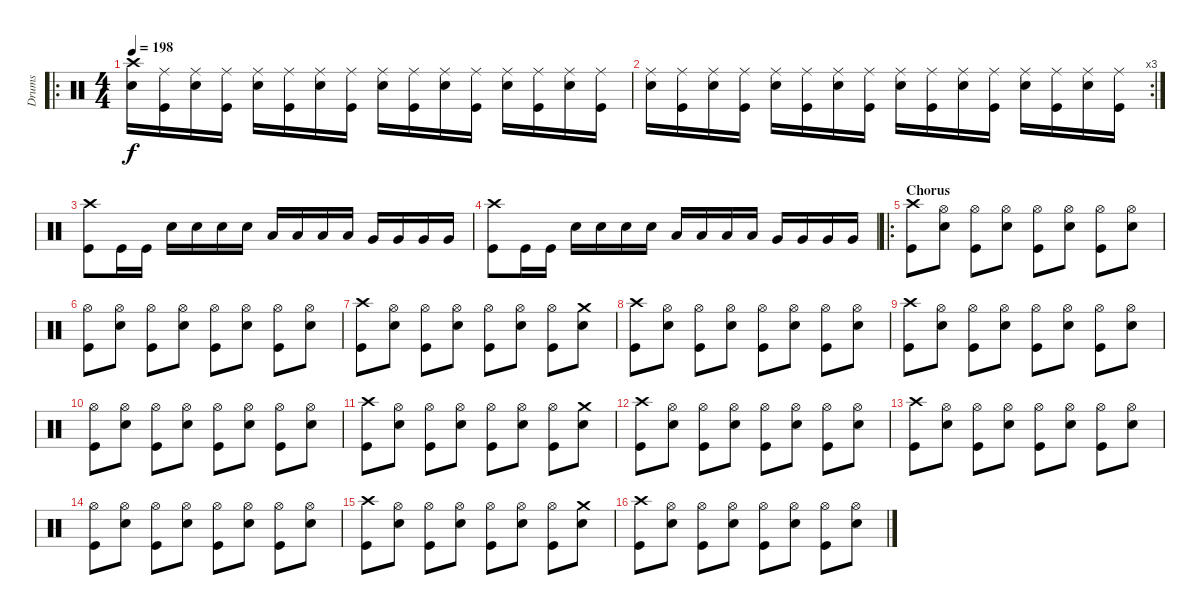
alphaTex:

\track ("Drums" "Drums") {instrument percussion}
\staff {score}
\articulation defaults
\ro
\ts (4 4)
\tempo 198
\clef neutral
\ks c
("Crash high (hit)" "Snare (hit) 2").16{dy f} ("Ride (middle)" "Kick (hit)").16 ("Ride (middle)" "Snare (hit) 2").16 ("Ride (middle)" "Kick (hit)").16 ("Ride (middle)" "Snare (hit) 2").16 ("Ride (middle)" "Kick (hit)").16 ("Ride (middle)" "Snare (hit) 2").16 ("Ride (middle)" "Kick (hit)").16 ("Ride (middle)" "Snare (hit) 2").16 ("Ride (middle)" "Kick (hit)").16 ("Ride (middle)" "Snare (hit) 2").16 ("Ride (middle)" "Kick (hit)").16 ("Ride (middle)" "Snare (hit) 2").16 ("Ride (middle)" "Kick (hit)").16 ("Ride (middle)" "Snare (hit) 2").16 ("Ride (middle)" "Kick (hit)").16 |
\rc 3
("Ride (middle)" "Snare (hit) 2").16 ("Ride (middle)" "Kick (hit)").16 ("Ride (middle)" "Snare (hit) 2").16 ("Ride (middle)" "Kick (hit)").16 ("Ride (middle)" "Snare (hit) 2").16 ("Ride (middle)" "Kick (hit)").16 ("Ride (middle)" "Snare (hit) 2").16 ("Ride (middle)" "Kick (hit)").16 ("Ride (middle)" "Snare (hit) 2").16 ("Ride (middle)" "Kick (hit)").16 ("Ride (middle)" "Snare (hit) 2").16 ("Ride (middle)" "Kick (hit)").16 ("Ride (middle)" "Snare (hit) 2").16 ("Ride (middle)" "Kick (hit)").16 ("Ride (middle)" "Snare (hit) 2").16 ("Ride (middle)" "Kick (hit)").16 |
("Crash high (hit)" "Kick (hit)").8 "Kick (hit)".16 "Kick (hit)".16 "Snare (hit) 2".16 "Snare (hit) 2".16 "Snare (hit) 2".16 "Snare (hit) 2".16 "Low Tom (hit)".16 "Low Tom (hit)".16 "Low Tom (hit)".16 "Low Tom (hit)".16 "Very Low Tom (hit)".16 "Very Low Tom (hit)".16 "Very Low Tom (hit)".16 "Very Low Tom (hit)".16 |
("Crash high (hit)" "Kick (hit)").8 "Kick (hit)".16 "Kick (hit)".16 "Snare (hit) 2".16 "Snare (hit) 2".16 "Snare (hit) 2".16 "Snare (hit) 2".16 "Low Tom (hit)".16 "Low Tom (hit)".16 "Low Tom (hit)".16 "Low Tom (hit)".16 "Very Low Tom (hit)".16 "Very Low Tom (hit)".16 "Very Low Tom (hit)".16 "Very Low Tom (hit)".16 |
\ro
\section ("" "Chorus")
("Crash high (hit)" "Kick (hit)").8 ("Hi-Hat (open)" "Snare (hit) 2").8 ("Hi-Hat (open)" "Kick (hit)").8 ("Hi-Hat (open)" "Snare (hit) 2").8 ("Hi-Hat (open)" "Kick (hit)").8 ("Hi-Hat (open)" "Snare (hit) 2").8 ("Hi-Hat (open)" "Kick (hit)").8 ("Hi-Hat (open)" "Snare (hit) 2").8 |
("Hi-Hat (open)" "Kick (hit)").8 ("Hi-Hat (open)" "Snare (hit) 2").8 ("Hi-Hat (open)" "Kick (hit)").8 ("Hi-Hat (open)" "Snare (hit) 2").8 ("Hi-Hat (open)" "Kick (hit)").8 ("Hi-Hat (open)" "Snare (hit) 2").8 ("Hi-Hat (open)" "Kick (hit)").8 ("Hi-Hat (open)" "Snare (hit) 2").8 |
("Crash high (hit)" "Kick (hit)").8 ("Hi-Hat (open)" "Snare (hit) 2").8 ("Hi-Hat (open)" "Kick (hit)").8 ("Hi-Hat (open)" "Snare (hit) 2").8 ("Hi-Hat (open)" "Kick (hit)").8 ("Hi-Hat (open)" "Snare (hit) 2").8 ("Hi-Hat (open)" "Kick (hit)").8 ("Crash medium (hit)" "Snare (hit) 2").8 |
("Crash high (hit)" "Kick (hit)").8 ("Hi-Hat (open)" "Snare (hit) 2").8 ("Hi-Hat (open)" "Kick (hit)").8 ("Hi-Hat (open)" "Snare (hit) 2").8 ("Hi-Hat (open)" "Kick (hit)").8 ("Hi-Hat (open)" "Snare (hit) 2").8 ("Hi-Hat (open)" "Kick (hit)").8 ("Hi-Hat (open)" "Snare (hit) 2").8 |
("Crash high (hit)" "Kick (hit)").8 ("Hi-Hat (open)" "Snare (hit) 2").8 ("Hi-Hat (open)" "Kick (hit)").8 ("Hi-Hat (open)" "Snare (hit) 2").8 ("Hi-Hat (open)" "Kick (hit)").8 ("Hi-Hat (open)" "Snare (hit) 2").8 ("Hi-Hat (open)" "Kick (hit)").8 ("Hi-Hat (open)" "Snare (hit) 2").8 |
("Hi-Hat (open)" "Kick (hit)").8 ("Hi-Hat (open)" "Snare (hit) 2").8 ("Hi-Hat (open)" "Kick (hit)").8 ("Hi-Hat (open)" "Snare (hit) 2").8 ("Hi-Hat (open)" "Kick (hit)").8 ("Hi-Hat (open)" "Snare (hit) 2").8 ("Hi-Hat (open)" "Kick (hit)").8 ("Hi-Hat (open)" "Snare (hit) 2").8 |
("Crash high (hit)" "Kick (hit)").8 ("Hi-Hat (open)" "Snare (hit) 2").8 ("Hi-Hat (open)" "Kick (hit)").8 ("Hi-Hat (open)" "Snare (hit) 2").8 ("Hi-Hat (open)" "Kick (hit)").8 ("Hi-Hat (open)" "Snare (hit) 2").8 ("Hi-Hat (open)" "Kick (hit)").8 ("Crash medium (hit)" "Snare (hit) 2").8 |
("Crash high (hit)" "Kick (hit)").8 ("Hi-Hat (open)" "Snare (hit) 2").8 ("Hi-Hat (open)" "Kick (hit)").8 ("Hi-Hat (open)" "Snare (hit) 2").8 ("Hi-Hat (open)" "Kick (hit)").8 ("Hi-Hat (open)" "Snare (hit) 2").8 ("Hi-Hat (open)" "Kick (hit)").8 ("Hi-Hat (open)" "Snare (hit) 2").8 |
("Crash high (hit)" "Kick (hit)").8 ("Hi-Hat (open)" "Snare (hit) 2").8 ("Hi-Hat (open)" "Kick (hit)").8 ("Hi-Hat (open)" "Snare (hit) 2").8 ("Hi-Hat (open)" "Kick (hit)").8 ("Hi-Hat (open)" "Snare (hit) 2").8 ("Hi-Hat (open)" "Kick (hit)").8 ("Hi-Hat (open)" "Snare (hit) 2").8 |
("Hi-Hat (open)" "Kick (hit)").8 ("Hi-Hat (open)" "Snare (hit) 2").8 ("Hi-Hat (open)" "Kick (hit)").8 ("Hi-Hat (open)" "Snare (hit) 2").8 ("Hi-Hat (open)" "Kick (hit)").8 ("Hi-Hat (open)" "Snare (hit) 2").8 ("Hi-Hat (open)" "Kick (hit)").8 ("Hi-Hat (open)" "Snare (hit) 2").8 |
("Crash high (hit)" "Kick (hit)").8 ("Hi-Hat (open)" "Snare (hit) 2").8 ("Hi-Hat (open)" "Kick (hit)").8 ("Hi-Hat (open)" "Snare (hit) 2").8 ("Hi-Hat (open)" "Kick (hit)").8 ("Hi-Hat (open)" "Snare (hit) 2").8 ("Hi-Hat (open)" "Kick (hit)").8 ("Crash medium (hit)" "Snare (hit) 2").8 |
("Crash high (hit)" "Kick (hit)").8 ("Hi-Hat (open)" "Snare (hit) 2").8 ("Hi-Hat (open)" "Kick (hit)").8 ("Hi-Hat (open)" "Snare (hit) 2").8 ("Hi-Hat (open)" "Kick (hit)").8 ("Hi-Hat (open)" "Snare (hit) 2").8 ("Hi-Hat (open)" "Kick (hit)").8 ("Hi-Hat (open)" "Snare (hit) 2").8
